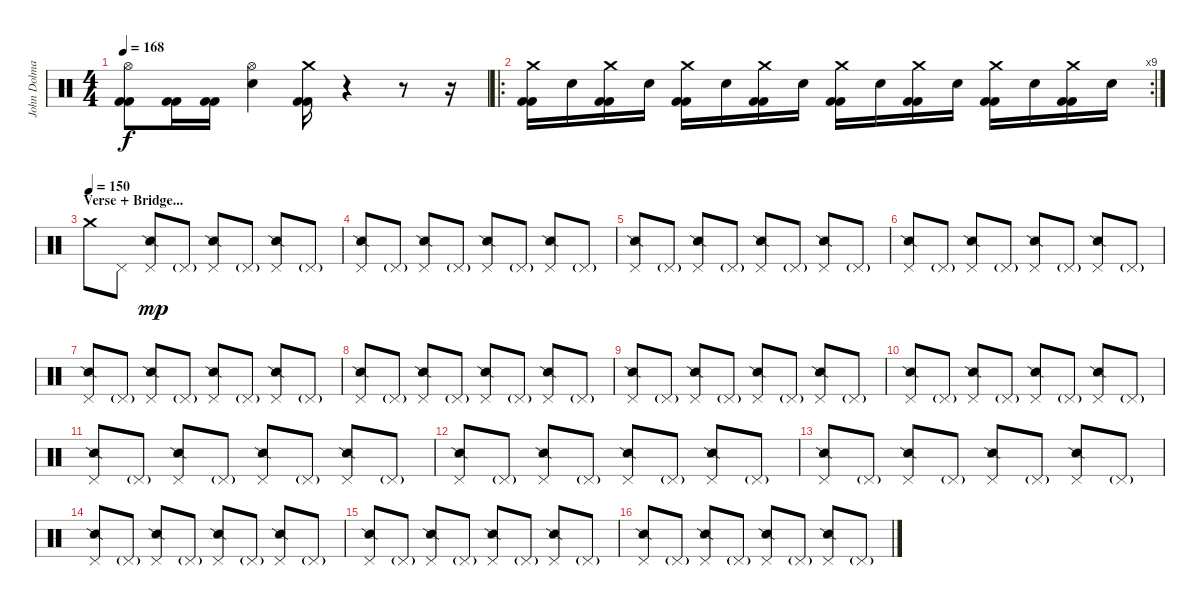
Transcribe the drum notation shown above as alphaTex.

\track ("John Dolmayan" "John Dolma") {instrument percussion}
\staff {score}
\articulation defaults
\ts (4 4)
\tempo 168
\clef neutral
\ks c
("Hi-Hat (open)" "Kick (hit) 2" "Kick (hit) 2").8{dy f} ("Kick (hit) 2" "Kick (hit) 2").16 ("Kick (hit) 2" "Kick (hit) 2").16 ("Hi-Hat (open)" "Electric Snare (hit)").4 ("Crash medium (hit)" "Kick (hit) 2" "Kick (hit) 2").16 r.4 r.8 r.16 |
\ro
\rc 9
("Crash medium (hit)" "Kick (hit) 2" "Kick (hit) 2").16 "Electric Snare (hit)".16 ("Crash medium (hit)" "Kick (hit) 2" "Kick (hit) 2").16 "Electric Snare (hit)".16 ("Crash medium (hit)" "Kick (hit) 2" "Kick (hit) 2").16 "Electric Snare (hit)".16 ("Crash medium (hit)" "Kick (hit) 2" "Kick (hit) 2").16 "Electric Snare (hit)".16 ("Crash medium (hit)" "Kick (hit) 2" "Kick (hit) 2").16 "Electric Snare (hit)".16 ("Crash medium (hit)" "Kick (hit) 2" "Kick (hit) 2").16 "Electric Snare (hit)".16 ("Crash medium (hit)" "Kick (hit) 2" "Kick (hit) 2").16 "Electric Snare (hit)".16 ("Crash medium (hit)" "Kick (hit) 2" "Kick (hit) 2").16 "Electric Snare (hit)".16 |
\section ("" "Verse + Bridge...")
\tempo (150)
"Crash medium (hit)".8 "Pedal Hi-Hat (hit)".8 ("Pedal Hi-Hat (hit)" "Snare (side stick) 2").8{dy mp} "Pedal Hi-Hat (hit)"{g}.8 ("Pedal Hi-Hat (hit)" "Snare (side stick) 2").8 "Pedal Hi-Hat (hit)"{g}.8 ("Pedal Hi-Hat (hit)" "Snare (side stick) 2").8 "Pedal Hi-Hat (hit)"{g}.8 |
("Pedal Hi-Hat (hit)" "Snare (side stick) 2").8 "Pedal Hi-Hat (hit)"{g}.8 ("Pedal Hi-Hat (hit)" "Snare (side stick) 2").8 "Pedal Hi-Hat (hit)"{g}.8 ("Pedal Hi-Hat (hit)" "Snare (side stick) 2").8 "Pedal Hi-Hat (hit)"{g}.8 ("Pedal Hi-Hat (hit)" "Snare (side stick) 2").8 "Pedal Hi-Hat (hit)"{g}.8 |
("Pedal Hi-Hat (hit)" "Snare (side stick) 2").8 "Pedal Hi-Hat (hit)"{g}.8 ("Pedal Hi-Hat (hit)" "Snare (side stick) 2").8 "Pedal Hi-Hat (hit)"{g}.8 ("Pedal Hi-Hat (hit)" "Snare (side stick) 2").8 "Pedal Hi-Hat (hit)"{g}.8 ("Pedal Hi-Hat (hit)" "Snare (side stick) 2").8 "Pedal Hi-Hat (hit)"{g}.8 |
("Pedal Hi-Hat (hit)" "Snare (side stick) 2").8 "Pedal Hi-Hat (hit)"{g}.8 ("Pedal Hi-Hat (hit)" "Snare (side stick) 2").8 "Pedal Hi-Hat (hit)"{g}.8 ("Pedal Hi-Hat (hit)" "Snare (side stick) 2").8 "Pedal Hi-Hat (hit)"{g}.8 ("Pedal Hi-Hat (hit)" "Snare (side stick) 2").8 "Pedal Hi-Hat (hit)"{g}.8 |
("Pedal Hi-Hat (hit)" "Snare (side stick) 2").8 "Pedal Hi-Hat (hit)"{g}.8 ("Pedal Hi-Hat (hit)" "Snare (side stick) 2").8 "Pedal Hi-Hat (hit)"{g}.8 ("Pedal Hi-Hat (hit)" "Snare (side stick) 2").8 "Pedal Hi-Hat (hit)"{g}.8 ("Pedal Hi-Hat (hit)" "Snare (side stick) 2").8 "Pedal Hi-Hat (hit)"{g}.8 |
("Pedal Hi-Hat (hit)" "Snare (side stick) 2").8 "Pedal Hi-Hat (hit)"{g}.8 ("Pedal Hi-Hat (hit)" "Snare (side stick) 2").8 "Pedal Hi-Hat (hit)"{g}.8 ("Pedal Hi-Hat (hit)" "Snare (side stick) 2").8 "Pedal Hi-Hat (hit)"{g}.8 ("Pedal Hi-Hat (hit)" "Snare (side stick) 2").8 "Pedal Hi-Hat (hit)"{g}.8 |
("Pedal Hi-Hat (hit)" "Snare (side stick) 2").8 "Pedal Hi-Hat (hit)"{g}.8 ("Pedal Hi-Hat (hit)" "Snare (side stick) 2").8 "Pedal Hi-Hat (hit)"{g}.8 ("Pedal Hi-Hat (hit)" "Snare (side stick) 2").8 "Pedal Hi-Hat (hit)"{g}.8 ("Pedal Hi-Hat (hit)" "Snare (side stick) 2").8 "Pedal Hi-Hat (hit)"{g}.8 |
("Pedal Hi-Hat (hit)" "Snare (side stick) 2").8 "Pedal Hi-Hat (hit)"{g}.8 ("Pedal Hi-Hat (hit)" "Snare (side stick) 2").8 "Pedal Hi-Hat (hit)"{g}.8 ("Pedal Hi-Hat (hit)" "Snare (side stick) 2").8 "Pedal Hi-Hat (hit)"{g}.8 ("Pedal Hi-Hat (hit)" "Snare (side stick) 2").8 "Pedal Hi-Hat (hit)"{g}.8 |
("Pedal Hi-Hat (hit)" "Snare (side stick) 2").8 "Pedal Hi-Hat (hit)"{g}.8 ("Pedal Hi-Hat (hit)" "Snare (side stick) 2").8 "Pedal Hi-Hat (hit)"{g}.8 ("Pedal Hi-Hat (hit)" "Snare (side stick) 2").8 "Pedal Hi-Hat (hit)"{g}.8 ("Pedal Hi-Hat (hit)" "Snare (side stick) 2").8 "Pedal Hi-Hat (hit)"{g}.8 |
("Pedal Hi-Hat (hit)" "Snare (side stick) 2").8 "Pedal Hi-Hat (hit)"{g}.8 ("Pedal Hi-Hat (hit)" "Snare (side stick) 2").8 "Pedal Hi-Hat (hit)"{g}.8 ("Pedal Hi-Hat (hit)" "Snare (side stick) 2").8 "Pedal Hi-Hat (hit)"{g}.8 ("Pedal Hi-Hat (hit)" "Snare (side stick) 2").8 "Pedal Hi-Hat (hit)"{g}.8 |
("Pedal Hi-Hat (hit)" "Snare (side stick) 2").8 "Pedal Hi-Hat (hit)"{g}.8 ("Pedal Hi-Hat (hit)" "Snare (side stick) 2").8 "Pedal Hi-Hat (hit)"{g}.8 ("Pedal Hi-Hat (hit)" "Snare (side stick) 2").8 "Pedal Hi-Hat (hit)"{g}.8 ("Pedal Hi-Hat (hit)" "Snare (side stick) 2").8 "Pedal Hi-Hat (hit)"{g}.8 |
("Pedal Hi-Hat (hit)" "Snare (side stick) 2").8 "Pedal Hi-Hat (hit)"{g}.8 ("Pedal Hi-Hat (hit)" "Snare (side stick) 2").8 "Pedal Hi-Hat (hit)"{g}.8 ("Pedal Hi-Hat (hit)" "Snare (side stick) 2").8 "Pedal Hi-Hat (hit)"{g}.8 ("Pedal Hi-Hat (hit)" "Snare (side stick) 2").8 "Pedal Hi-Hat (hit)"{g}.8 |
("Pedal Hi-Hat (hit)" "Snare (side stick) 2").8 "Pedal Hi-Hat (hit)"{g}.8 ("Pedal Hi-Hat (hit)" "Snare (side stick) 2").8 "Pedal Hi-Hat (hit)"{g}.8 ("Pedal Hi-Hat (hit)" "Snare (side stick) 2").8 "Pedal Hi-Hat (hit)"{g}.8 ("Pedal Hi-Hat (hit)" "Snare (side stick) 2").8 "Pedal Hi-Hat (hit)"{g}.8 |
("Pedal Hi-Hat (hit)" "Snare (side stick) 2").8 "Pedal Hi-Hat (hit)"{g}.8 ("Pedal Hi-Hat (hit)" "Snare (side stick) 2").8 "Pedal Hi-Hat (hit)"{g}.8 ("Pedal Hi-Hat (hit)" "Snare (side stick) 2").8 "Pedal Hi-Hat (hit)"{g}.8 ("Pedal Hi-Hat (hit)" "Snare (side stick) 2").8 "Pedal Hi-Hat (hit)"{g}.8
